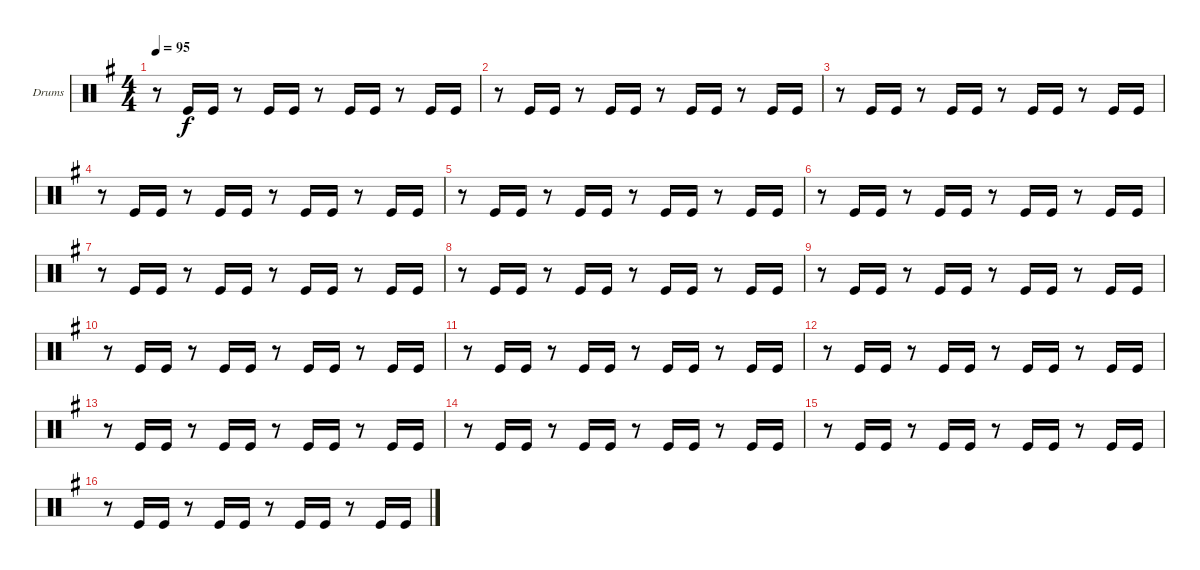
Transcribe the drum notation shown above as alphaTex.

\bracketExtendMode groupsimilarinstruments
\firstSystemTrackNameOrientation horizontal
\otherSystemsTrackNameOrientation horizontal
\track ("Drumkit" "Drums") {instrument percussion}
\staff {score}
\articulation defaults
\ts (4 4)
\tempo 95
\clef neutral
\ks g
r.8{dy f} "Kick (hit)".16 "Kick (hit)".16 r.8 "Kick (hit)".16 "Kick (hit)".16 r.8 "Kick (hit)".16 "Kick (hit)".16 r.8 "Kick (hit)".16 "Kick (hit)".16 |
r.8 "Kick (hit)".16 "Kick (hit)".16 r.8 "Kick (hit)".16 "Kick (hit)".16 r.8 "Kick (hit)".16 "Kick (hit)".16 r.8 "Kick (hit)".16 "Kick (hit)".16 |
r.8 "Kick (hit)".16 "Kick (hit)".16 r.8 "Kick (hit)".16 "Kick (hit)".16 r.8 "Kick (hit)".16 "Kick (hit)".16 r.8 "Kick (hit)".16 "Kick (hit)".16 |
r.8 "Kick (hit)".16 "Kick (hit)".16 r.8 "Kick (hit)".16 "Kick (hit)".16 r.8 "Kick (hit)".16 "Kick (hit)".16 r.8 "Kick (hit)".16 "Kick (hit)".16 |
r.8 "Kick (hit)".16 "Kick (hit)".16 r.8 "Kick (hit)".16 "Kick (hit)".16 r.8 "Kick (hit)".16 "Kick (hit)".16 r.8 "Kick (hit)".16 "Kick (hit)".16 |
r.8 "Kick (hit)".16 "Kick (hit)".16 r.8 "Kick (hit)".16 "Kick (hit)".16 r.8 "Kick (hit)".16 "Kick (hit)".16 r.8 "Kick (hit)".16 "Kick (hit)".16 |
r.8 "Kick (hit)".16 "Kick (hit)".16 r.8 "Kick (hit)".16 "Kick (hit)".16 r.8 "Kick (hit)".16 "Kick (hit)".16 r.8 "Kick (hit)".16 "Kick (hit)".16 |
r.8 "Kick (hit)".16 "Kick (hit)".16 r.8 "Kick (hit)".16 "Kick (hit)".16 r.8 "Kick (hit)".16 "Kick (hit)".16 r.8 "Kick (hit)".16 "Kick (hit)".16 |
r.8 "Kick (hit)".16 "Kick (hit)".16 r.8 "Kick (hit)".16 "Kick (hit)".16 r.8 "Kick (hit)".16 "Kick (hit)".16 r.8 "Kick (hit)".16 "Kick (hit)".16 |
r.8 "Kick (hit)".16 "Kick (hit)".16 r.8 "Kick (hit)".16 "Kick (hit)".16 r.8 "Kick (hit)".16 "Kick (hit)".16 r.8 "Kick (hit)".16 "Kick (hit)".16 |
r.8 "Kick (hit)".16 "Kick (hit)".16 r.8 "Kick (hit)".16 "Kick (hit)".16 r.8 "Kick (hit)".16 "Kick (hit)".16 r.8 "Kick (hit)".16 "Kick (hit)".16 |
r.8 "Kick (hit)".16 "Kick (hit)".16 r.8 "Kick (hit)".16 "Kick (hit)".16 r.8 "Kick (hit)".16 "Kick (hit)".16 r.8 "Kick (hit)".16 "Kick (hit)".16 |
r.8 "Kick (hit)".16 "Kick (hit)".16 r.8 "Kick (hit)".16 "Kick (hit)".16 r.8 "Kick (hit)".16 "Kick (hit)".16 r.8 "Kick (hit)".16 "Kick (hit)".16 |
r.8 "Kick (hit)".16 "Kick (hit)".16 r.8 "Kick (hit)".16 "Kick (hit)".16 r.8 "Kick (hit)".16 "Kick (hit)".16 r.8 "Kick (hit)".16 "Kick (hit)".16 |
r.8 "Kick (hit)".16 "Kick (hit)".16 r.8 "Kick (hit)".16 "Kick (hit)".16 r.8 "Kick (hit)".16 "Kick (hit)".16 r.8 "Kick (hit)".16 "Kick (hit)".16 |
r.8 "Kick (hit)".16 "Kick (hit)".16 r.8 "Kick (hit)".16 "Kick (hit)".16 r.8 "Kick (hit)".16 "Kick (hit)".16 r.8 "Kick (hit)".16 "Kick (hit)".16
